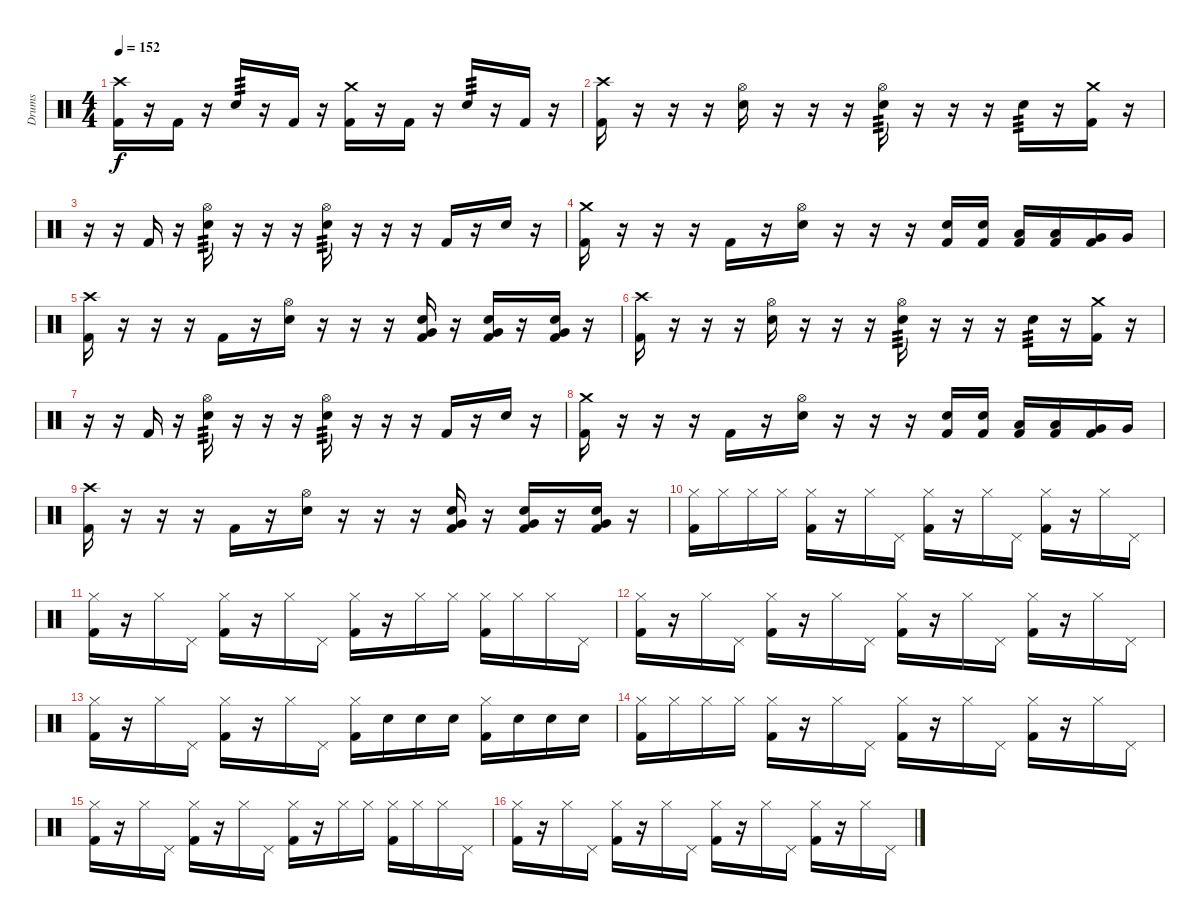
\track ("Drums" "Drums") {instrument percussion}
\staff {score}
\articulation defaults
\ts (4 4)
\tempo 152
\clef neutral
\ks c
("Crash high (hit)" "Kick (hit) 2").16{dy f} r.16 "Kick (hit) 2".16 r.16 "Snare (hit) 2".16{tp 3} r.16 "Kick (hit) 2".16 r.16 ("Crash medium (hit)" "Kick (hit) 2").16 r.16 "Kick (hit) 2".16 r.16 "Snare (hit) 2".16{tp 3} r.16 "Kick (hit) 2".16 r.16 |
("Crash high (hit)" "Kick (hit) 2").16 r.16 r.16 r.16 ("Hi-Hat (open)" "Snare (hit) 2").16 r.16 r.16 r.16 ("Hi-Hat (open)" "Snare (hit) 2").16{tp 3} r.16 r.16 r.16 "Snare (hit) 2".16{tp 3} r.16 ("Crash medium (hit)" "Kick (hit) 2").16 r.16 |
r.16 r.16 "Kick (hit) 2".16 r.16 ("Hi-Hat (open)" "Snare (hit) 2").16{tp 3} r.16 r.16 r.16 ("Hi-Hat (open)" "Snare (hit) 2").16{tp 3} r.16 r.16 r.16 "Kick (hit) 2".16 r.16 "Snare (hit) 2".16 r.16 |
("Crash medium (hit)" "Kick (hit) 2").16 r.16 r.16 r.16 "Kick (hit) 2".16 r.16 ("Hi-Hat (open)" "Snare (hit) 2").16 r.16 r.16 r.16 ("Snare (hit) 2" "Kick (hit) 2").16 ("Snare (hit) 2" "Kick (hit) 2").16 ("Low Tom (hit)" "Kick (hit) 2").16 ("Low Tom (hit)" "Kick (hit) 2").16 ("Very Low Tom (hit)" "Kick (hit) 2").16 "Very Low Tom (hit)".16 |
("Crash high (hit)" "Kick (hit) 2").16 r.16 r.16 r.16 "Kick (hit) 2".16 r.16 ("Hi-Hat (open)" "Snare (hit) 2").16 r.16 r.16 r.16 ("Very Low Tom (hit)" "Snare (hit) 2" "Kick (hit) 2").16 r.16 ("Very Low Tom (hit)" "Snare (hit) 2" "Kick (hit) 2").16 r.16 ("Very Low Tom (hit)" "Snare (hit) 2" "Kick (hit) 2").16 r.16 |
("Crash high (hit)" "Kick (hit) 2").16 r.16 r.16 r.16 ("Hi-Hat (open)" "Snare (hit) 2").16 r.16 r.16 r.16 ("Hi-Hat (open)" "Snare (hit) 2").16{tp 3} r.16 r.16 r.16 "Snare (hit) 2".16{tp 3} r.16 ("Crash medium (hit)" "Kick (hit) 2").16 r.16 |
r.16 r.16 "Kick (hit) 2".16 r.16 ("Hi-Hat (open)" "Snare (hit) 2").16{tp 3} r.16 r.16 r.16 ("Hi-Hat (open)" "Snare (hit) 2").16{tp 3} r.16 r.16 r.16 "Kick (hit) 2".16 r.16 "Snare (hit) 2".16 r.16 |
("Crash medium (hit)" "Kick (hit) 2").16 r.16 r.16 r.16 "Kick (hit) 2".16 r.16 ("Hi-Hat (open)" "Snare (hit) 2").16 r.16 r.16 r.16 ("Snare (hit) 2" "Kick (hit) 2").16 ("Snare (hit) 2" "Kick (hit) 2").16 ("Low Tom (hit)" "Kick (hit) 2").16 ("Low Tom (hit)" "Kick (hit) 2").16 ("Very Low Tom (hit)" "Kick (hit) 2").16 "Very Low Tom (hit)".16 |
("Crash high (hit)" "Kick (hit) 2").16 r.16 r.16 r.16 "Kick (hit) 2".16 r.16 ("Hi-Hat (open)" "Snare (hit) 2").16 r.16 r.16 r.16 ("Very Low Tom (hit)" "Snare (hit) 2" "Kick (hit) 2").16 r.16 ("Very Low Tom (hit)" "Snare (hit) 2" "Kick (hit) 2").16 r.16 ("Very Low Tom (hit)" "Snare (hit) 2" "Kick (hit) 2").16 r.16 |
("Hi-Hat (closed)" "Kick (hit) 2").16 "Hi-Hat (closed)".16 "Hi-Hat (closed)".16 "Hi-Hat (closed)".16 ("Hi-Hat (closed)" "Kick (hit) 2").16 r.16 "Hi-Hat (closed)".16 "Pedal Hi-Hat (hit)".16 ("Hi-Hat (closed)" "Kick (hit) 2").16 r.16 "Hi-Hat (closed)".16 "Pedal Hi-Hat (hit)".16 ("Hi-Hat (closed)" "Kick (hit) 2").16 r.16 "Hi-Hat (closed)".16 "Pedal Hi-Hat (hit)".16 |
("Hi-Hat (closed)" "Kick (hit) 2").16 r.16 "Hi-Hat (closed)".16 "Pedal Hi-Hat (hit)".16 ("Hi-Hat (closed)" "Kick (hit) 2").16 r.16 "Hi-Hat (closed)".16 "Pedal Hi-Hat (hit)".16 ("Hi-Hat (closed)" "Kick (hit) 2").16 r.16 "Hi-Hat (closed)".16 "Hi-Hat (closed)".16 ("Hi-Hat (closed)" "Kick (hit) 2").16 "Hi-Hat (closed)".16 "Hi-Hat (closed)".16 "Pedal Hi-Hat (hit)".16 |
("Hi-Hat (closed)" "Kick (hit) 2").16 r.16 "Hi-Hat (closed)".16 "Pedal Hi-Hat (hit)".16 ("Hi-Hat (closed)" "Kick (hit) 2").16 r.16 "Hi-Hat (closed)".16 "Pedal Hi-Hat (hit)".16 ("Hi-Hat (closed)" "Kick (hit) 2").16 r.16 "Hi-Hat (closed)".16 "Pedal Hi-Hat (hit)".16 ("Hi-Hat (closed)" "Kick (hit) 2").16 r.16 "Hi-Hat (closed)".16 "Pedal Hi-Hat (hit)".16 |
("Hi-Hat (closed)" "Kick (hit) 2").16 r.16 "Hi-Hat (closed)".16 "Pedal Hi-Hat (hit)".16 ("Hi-Hat (closed)" "Kick (hit) 2").16 r.16 "Hi-Hat (closed)".16 "Pedal Hi-Hat (hit)".16 ("Hi-Hat (closed)" "Kick (hit) 2").16 "Snare (hit) 2".16 "Snare (hit) 2".16 "Snare (hit) 2".16 ("Hi-Hat (closed)" "Kick (hit) 2").16 "Snare (hit) 2".16 "Snare (hit) 2".16 "Snare (hit) 2".16 |
("Hi-Hat (closed)" "Kick (hit) 2").16 "Hi-Hat (closed)".16 "Hi-Hat (closed)".16 "Hi-Hat (closed)".16 ("Hi-Hat (closed)" "Kick (hit) 2").16 r.16 "Hi-Hat (closed)".16 "Pedal Hi-Hat (hit)".16 ("Hi-Hat (closed)" "Kick (hit) 2").16 r.16 "Hi-Hat (closed)".16 "Pedal Hi-Hat (hit)".16 ("Hi-Hat (closed)" "Kick (hit) 2").16 r.16 "Hi-Hat (closed)".16 "Pedal Hi-Hat (hit)".16 |
("Hi-Hat (closed)" "Kick (hit) 2").16 r.16 "Hi-Hat (closed)".16 "Pedal Hi-Hat (hit)".16 ("Hi-Hat (closed)" "Kick (hit) 2").16 r.16 "Hi-Hat (closed)".16 "Pedal Hi-Hat (hit)".16 ("Hi-Hat (closed)" "Kick (hit) 2").16 r.16 "Hi-Hat (closed)".16 "Hi-Hat (closed)".16 ("Hi-Hat (closed)" "Kick (hit) 2").16 "Hi-Hat (closed)".16 "Hi-Hat (closed)".16 "Pedal Hi-Hat (hit)".16 |
("Hi-Hat (closed)" "Kick (hit) 2").16 r.16 "Hi-Hat (closed)".16 "Pedal Hi-Hat (hit)".16 ("Hi-Hat (closed)" "Kick (hit) 2").16 r.16 "Hi-Hat (closed)".16 "Pedal Hi-Hat (hit)".16 ("Hi-Hat (closed)" "Kick (hit) 2").16 r.16 "Hi-Hat (closed)".16 "Pedal Hi-Hat (hit)".16 ("Hi-Hat (closed)" "Kick (hit) 2").16 r.16 "Hi-Hat (closed)".16 "Pedal Hi-Hat (hit)".16
